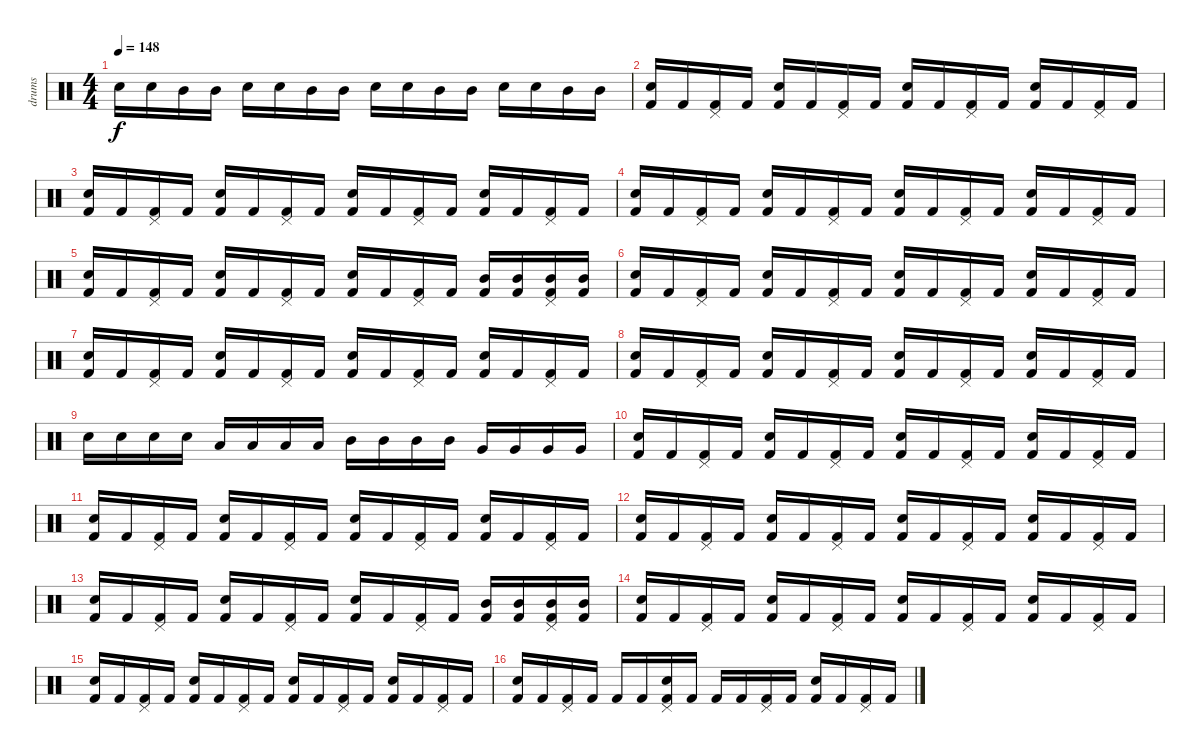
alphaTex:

\track ("drums" "drums") {instrument percussion}
\staff {score}
\articulation defaults
\ts (4 4)
\tempo 148
\clef neutral
\ks c "Snare (hit) 2".16{dy f} "Snare (hit) 2".16 "Mid Tom (hit)".16 "Mid Tom (hit)".16 "Electric Snare (hit)".16 "Electric Snare (hit)".16 "Mid Tom (hit)".16 "Mid Tom (hit)".16 "Snare (hit) 2".16 "Snare (hit) 2".16 "Mid Tom (hit)".16 "Mid Tom (hit)".16 "Electric Snare (hit)".16 "Electric Snare (hit)".16 "Mid Tom (hit)".16 "Mid Tom (hit)".16
|
("Snare (hit) 2" "Kick (hit) 2").16 "Kick (hit) 2".16 ("Pedal Hi-Hat (hit)" "Kick (hit) 2").16 "Kick (hit) 2".16 ("Electric Snare (hit)" "Kick (hit) 2").16 "Kick (hit) 2".16 ("Pedal Hi-Hat (hit)" "Kick (hit) 2").16 "Kick (hit) 2".16 ("Snare (hit) 2" "Kick (hit) 2").16 "Kick (hit) 2".16 ("Pedal Hi-Hat (hit)" "Kick (hit) 2").16 "Kick (hit) 2".16 ("Electric Snare (hit)" "Kick (hit) 2").16 "Kick (hit) 2".16 ("Pedal Hi-Hat (hit)" "Kick (hit) 2").16 "Kick (hit) 2".16 |
("Snare (hit) 2" "Kick (hit) 2").16 "Kick (hit) 2".16 ("Pedal Hi-Hat (hit)" "Kick (hit) 2").16 "Kick (hit) 2".16 ("Electric Snare (hit)" "Kick (hit) 2").16 "Kick (hit) 2".16 ("Pedal Hi-Hat (hit)" "Kick (hit) 2").16 "Kick (hit) 2".16 ("Snare (hit) 2" "Kick (hit) 2").16 "Kick (hit) 2".16 ("Pedal Hi-Hat (hit)" "Kick (hit) 2").16 "Kick (hit) 2".16 ("Electric Snare (hit)" "Kick (hit) 2").16 "Kick (hit) 2".16 ("Pedal Hi-Hat (hit)" "Kick (hit) 2").16 "Kick (hit) 2".16 |
("Snare (hit) 2" "Kick (hit) 2").16 "Kick (hit) 2".16 ("Pedal Hi-Hat (hit)" "Kick (hit) 2").16 "Kick (hit) 2".16 ("Electric Snare (hit)" "Kick (hit) 2").16 "Kick (hit) 2".16 ("Pedal Hi-Hat (hit)" "Kick (hit) 2").16 "Kick (hit) 2".16 ("Snare (hit) 2" "Kick (hit) 2").16 "Kick (hit) 2".16 ("Pedal Hi-Hat (hit)" "Kick (hit) 2").16 "Kick (hit) 2".16 ("Electric Snare (hit)" "Kick (hit) 2").16 "Kick (hit) 2".16 ("Pedal Hi-Hat (hit)" "Kick (hit) 2").16 "Kick (hit) 2".16 |
("Snare (hit) 2" "Kick (hit) 2").16 "Kick (hit) 2".16 ("Pedal Hi-Hat (hit)" "Kick (hit) 2").16 "Kick (hit) 2".16 ("Electric Snare (hit)" "Kick (hit) 2").16 "Kick (hit) 2".16 ("Pedal Hi-Hat (hit)" "Kick (hit) 2").16 "Kick (hit) 2".16 ("Snare (hit) 2" "Kick (hit) 2").16 "Kick (hit) 2".16 ("Pedal Hi-Hat (hit)" "Kick (hit) 2").16 "Kick (hit) 2".16 ("Mid Tom (hit)" "Kick (hit) 2").16 ("Mid Tom (hit)" "Kick (hit) 2").16 ("Pedal Hi-Hat (hit)" "Mid Tom (hit)" "Kick (hit) 2").16 ("Mid Tom (hit)" "Kick (hit) 2").16 |
("Snare (hit) 2" "Kick (hit) 2").16 "Kick (hit) 2".16 ("Pedal Hi-Hat (hit)" "Kick (hit) 2").16 "Kick (hit) 2".16 ("Electric Snare (hit)" "Kick (hit) 2").16 "Kick (hit) 2".16 ("Pedal Hi-Hat (hit)" "Kick (hit) 2").16 "Kick (hit) 2".16 ("Snare (hit) 2" "Kick (hit) 2").16 "Kick (hit) 2".16 ("Pedal Hi-Hat (hit)" "Kick (hit) 2").16 "Kick (hit) 2".16 ("Electric Snare (hit)" "Kick (hit) 2").16 "Kick (hit) 2".16 ("Pedal Hi-Hat (hit)" "Kick (hit) 2").16 "Kick (hit) 2".16 |
("Snare (hit) 2" "Kick (hit) 2").16 "Kick (hit) 2".16 ("Pedal Hi-Hat (hit)" "Kick (hit) 2").16 "Kick (hit) 2".16 ("Electric Snare (hit)" "Kick (hit) 2").16 "Kick (hit) 2".16 ("Pedal Hi-Hat (hit)" "Kick (hit) 2").16 "Kick (hit) 2".16 ("Snare (hit) 2" "Kick (hit) 2").16 "Kick (hit) 2".16 ("Pedal Hi-Hat (hit)" "Kick (hit) 2").16 "Kick (hit) 2".16 ("Electric Snare (hit)" "Kick (hit) 2").16 "Kick (hit) 2".16 ("Pedal Hi-Hat (hit)" "Kick (hit) 2").16 "Kick (hit) 2".16 |
("Snare (hit) 2" "Kick (hit) 2").16 "Kick (hit) 2".16 ("Pedal Hi-Hat (hit)" "Kick (hit) 2").16 "Kick (hit) 2".16 ("Electric Snare (hit)" "Kick (hit) 2").16 "Kick (hit) 2".16 ("Pedal Hi-Hat (hit)" "Kick (hit) 2").16 "Kick (hit) 2".16 ("Snare (hit) 2" "Kick (hit) 2").16 "Kick (hit) 2".16 ("Pedal Hi-Hat (hit)" "Kick (hit) 2").16 "Kick (hit) 2".16 ("Electric Snare (hit)" "Kick (hit) 2").16 "Kick (hit) 2".16 ("Pedal Hi-Hat (hit)" "Kick (hit) 2").16 "Kick (hit) 2".16 |
"Snare (hit) 2".16 "Snare (hit) 2".16 "Snare (hit) 2".16 "Snare (hit) 2".16 "Low Tom (hit)".16 "Low Tom (hit)".16 "Low Tom (hit)".16 "Low Tom (hit)".16 "Mid Tom (hit)".16 "Mid Tom (hit)".16 "Mid Tom (hit)".16 "Mid Tom (hit)".16 "Very Low Tom (hit)".16 "Very Low Tom (hit)".16 "Very Low Tom (hit)".16 "Very Low Tom (hit)".16 |
("Snare (hit) 2" "Kick (hit) 2").16 "Kick (hit) 2".16 ("Pedal Hi-Hat (hit)" "Kick (hit) 2").16 "Kick (hit) 2".16 ("Electric Snare (hit)" "Kick (hit) 2").16 "Kick (hit) 2".16 ("Pedal Hi-Hat (hit)" "Kick (hit) 2").16 "Kick (hit) 2".16 ("Snare (hit) 2" "Kick (hit) 2").16 "Kick (hit) 2".16 ("Pedal Hi-Hat (hit)" "Kick (hit) 2").16 "Kick (hit) 2".16 ("Electric Snare (hit)" "Kick (hit) 2").16 "Kick (hit) 2".16 ("Pedal Hi-Hat (hit)" "Kick (hit) 2").16 "Kick (hit) 2".16 |
("Snare (hit) 2" "Kick (hit) 2").16 "Kick (hit) 2".16 ("Pedal Hi-Hat (hit)" "Kick (hit) 2").16 "Kick (hit) 2".16 ("Electric Snare (hit)" "Kick (hit) 2").16 "Kick (hit) 2".16 ("Pedal Hi-Hat (hit)" "Kick (hit) 2").16 "Kick (hit) 2".16 ("Snare (hit) 2" "Kick (hit) 2").16 "Kick (hit) 2".16 ("Pedal Hi-Hat (hit)" "Kick (hit) 2").16 "Kick (hit) 2".16 ("Electric Snare (hit)" "Kick (hit) 2").16 "Kick (hit) 2".16 ("Pedal Hi-Hat (hit)" "Kick (hit) 2").16 "Kick (hit) 2".16 |
("Snare (hit) 2" "Kick (hit) 2").16 "Kick (hit) 2".16 ("Pedal Hi-Hat (hit)" "Kick (hit) 2").16 "Kick (hit) 2".16 ("Electric Snare (hit)" "Kick (hit) 2").16 "Kick (hit) 2".16 ("Pedal Hi-Hat (hit)" "Kick (hit) 2").16 "Kick (hit) 2".16 ("Snare (hit) 2" "Kick (hit) 2").16 "Kick (hit) 2".16 ("Pedal Hi-Hat (hit)" "Kick (hit) 2").16 "Kick (hit) 2".16 ("Electric Snare (hit)" "Kick (hit) 2").16 "Kick (hit) 2".16 ("Pedal Hi-Hat (hit)" "Kick (hit) 2").16 "Kick (hit) 2".16 |
("Snare (hit) 2" "Kick (hit) 2").16 "Kick (hit) 2".16 ("Pedal Hi-Hat (hit)" "Kick (hit) 2").16 "Kick (hit) 2".16 ("Electric Snare (hit)" "Kick (hit) 2").16 "Kick (hit) 2".16 ("Pedal Hi-Hat (hit)" "Kick (hit) 2").16 "Kick (hit) 2".16 ("Snare (hit) 2" "Kick (hit) 2").16 "Kick (hit) 2".16 ("Pedal Hi-Hat (hit)" "Kick (hit) 2").16 "Kick (hit) 2".16 ("Mid Tom (hit)" "Kick (hit) 2").16 ("Mid Tom (hit)" "Kick (hit) 2").16 ("Pedal Hi-Hat (hit)" "Mid Tom (hit)" "Kick (hit) 2").16 ("Mid Tom (hit)" "Kick (hit) 2").16 |
("Snare (hit) 2" "Kick (hit) 2").16 "Kick (hit) 2".16 ("Pedal Hi-Hat (hit)" "Kick (hit) 2").16 "Kick (hit) 2".16 ("Electric Snare (hit)" "Kick (hit) 2").16 "Kick (hit) 2".16 ("Pedal Hi-Hat (hit)" "Kick (hit) 2").16 "Kick (hit) 2".16 ("Snare (hit) 2" "Kick (hit) 2").16 "Kick (hit) 2".16 ("Pedal Hi-Hat (hit)" "Kick (hit) 2").16 "Kick (hit) 2".16 ("Electric Snare (hit)" "Kick (hit) 2").16 "Kick (hit) 2".16 ("Pedal Hi-Hat (hit)" "Kick (hit) 2").16 "Kick (hit) 2".16 |
("Snare (hit) 2" "Kick (hit) 2").16 "Kick (hit) 2".16 ("Pedal Hi-Hat (hit)" "Kick (hit) 2").16 "Kick (hit) 2".16 ("Electric Snare (hit)" "Kick (hit) 2").16 "Kick (hit) 2".16 ("Pedal Hi-Hat (hit)" "Kick (hit) 2").16 "Kick (hit) 2".16 ("Snare (hit) 2" "Kick (hit) 2").16 "Kick (hit) 2".16 ("Pedal Hi-Hat (hit)" "Kick (hit) 2").16 "Kick (hit) 2".16 ("Electric Snare (hit)" "Kick (hit) 2").16 "Kick (hit) 2".16 ("Pedal Hi-Hat (hit)" "Kick (hit) 2").16 "Kick (hit) 2".16 |
("Snare (hit) 2" "Kick (hit) 2").16 "Kick (hit) 2".16 ("Pedal Hi-Hat (hit)" "Kick (hit) 2").16 "Kick (hit) 2".16 "Kick (hit) 2".16 "Kick (hit) 2".16 ("Pedal Hi-Hat (hit)" "Electric Snare (hit)" "Kick (hit) 2").16 "Kick (hit) 2".16 "Kick (hit) 2".16 "Kick (hit) 2".16 ("Pedal Hi-Hat (hit)" "Kick (hit) 2").16 "Kick (hit) 2".16 ("Electric Snare (hit)" "Kick (hit) 2").16 "Kick (hit) 2".16 ("Pedal Hi-Hat (hit)" "Kick (hit) 2").16 "Kick (hit) 2".16
